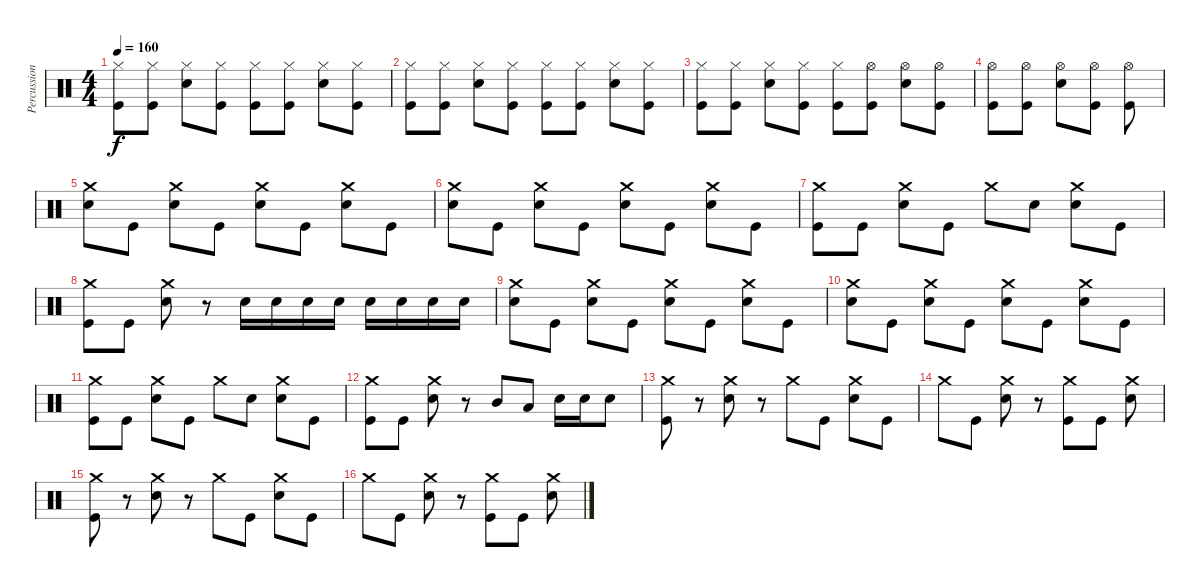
\track ("Percussion" "Percussion") {instrument percussion}
\staff {score}
\articulation defaults
\ts (4 4)
\tempo 160
\clef neutral
\ks c
("Hi-Hat (closed)" "Kick (hit)").8{dy f} ("Hi-Hat (closed)" "Kick (hit)").8 ("Hi-Hat (closed)" "Electric Snare (hit)").8 ("Hi-Hat (closed)" "Kick (hit)").8 ("Hi-Hat (closed)" "Kick (hit)").8 ("Hi-Hat (closed)" "Kick (hit)").8 ("Hi-Hat (closed)" "Electric Snare (hit)").8 ("Hi-Hat (closed)" "Kick (hit)").8 |
("Hi-Hat (closed)" "Kick (hit)").8 ("Hi-Hat (closed)" "Kick (hit)").8 ("Hi-Hat (closed)" "Electric Snare (hit)").8 ("Hi-Hat (closed)" "Kick (hit)").8 ("Hi-Hat (closed)" "Kick (hit)").8 ("Hi-Hat (closed)" "Kick (hit)").8 ("Hi-Hat (closed)" "Electric Snare (hit)").8 ("Hi-Hat (closed)" "Kick (hit)").8 |
("Hi-Hat (closed)" "Kick (hit)").8 ("Hi-Hat (closed)" "Kick (hit)").8 ("Hi-Hat (closed)" "Electric Snare (hit)").8 ("Hi-Hat (closed)" "Kick (hit)").8 ("Hi-Hat (closed)" "Kick (hit)").8 ("Hi-Hat (open)" "Kick (hit)").8 ("Hi-Hat (open)" "Electric Snare (hit)").8 ("Hi-Hat (open)" "Kick (hit)").8 |
("Hi-Hat (open)" "Kick (hit)").8 ("Hi-Hat (open)" "Kick (hit)").8 ("Hi-Hat (open)" "Electric Snare (hit)").8 ("Hi-Hat (open)" "Kick (hit)").8 ("Hi-Hat (open)" "Kick (hit)").8 |
("Crash medium (hit)" "Electric Snare (hit)").8 "Kick (hit)".8 ("Crash medium (hit)" "Electric Snare (hit)").8 "Kick (hit)".8 ("Crash medium (hit)" "Electric Snare (hit)").8 "Kick (hit)".8 ("Crash medium (hit)" "Electric Snare (hit)").8 "Kick (hit)".8 |
("Crash medium (hit)" "Electric Snare (hit)").8 "Kick (hit)".8 ("Crash medium (hit)" "Electric Snare (hit)").8 "Kick (hit)".8 ("Crash medium (hit)" "Electric Snare (hit)").8 "Kick (hit)".8 ("Crash medium (hit)" "Electric Snare (hit)").8 "Kick (hit)".8 |
("Crash medium (hit)" "Kick (hit)").8 "Kick (hit)".8 ("Crash medium (hit)" "Electric Snare (hit)").8 "Kick (hit)".8 "Crash medium (hit)".8 "Electric Snare (hit)".8 ("Crash medium (hit)" "Electric Snare (hit)").8 "Kick (hit)".8 |
("Crash medium (hit)" "Kick (hit)").8 "Kick (hit)".8 ("Crash medium (hit)" "Electric Snare (hit)").8 r.8 "Electric Snare (hit)".16 "Electric Snare (hit)".16 "Electric Snare (hit)".16 "Electric Snare (hit)".16 "Electric Snare (hit)".16 "Electric Snare (hit)".16 "Electric Snare (hit)".16 "Electric Snare (hit)".16 |
("Crash medium (hit)" "Electric Snare (hit)").8 "Kick (hit)".8 ("Crash medium (hit)" "Electric Snare (hit)").8 "Kick (hit)".8 ("Crash medium (hit)" "Electric Snare (hit)").8 "Kick (hit)".8 ("Crash medium (hit)" "Electric Snare (hit)").8 "Kick (hit)".8 |
("Crash medium (hit)" "Electric Snare (hit)").8 "Kick (hit)".8 ("Crash medium (hit)" "Electric Snare (hit)").8 "Kick (hit)".8 ("Crash medium (hit)" "Electric Snare (hit)").8 "Kick (hit)".8 ("Crash medium (hit)" "Electric Snare (hit)").8 "Kick (hit)".8 |
("Crash medium (hit)" "Kick (hit)").8 "Kick (hit)".8 ("Crash medium (hit)" "Electric Snare (hit)").8 "Kick (hit)".8 "Crash medium (hit)".8 "Electric Snare (hit)".8 ("Crash medium (hit)" "Electric Snare (hit)").8 "Kick (hit)".8 |
("Crash medium (hit)" "Kick (hit)").8 "Kick (hit)".8 ("Crash medium (hit)" "Electric Snare (hit)").8 r.8 "Mid Tom (hit)".8 "Low Tom (hit)".8 "Electric Snare (hit)".16 "Electric Snare (hit)".16 "Electric Snare (hit)".8 |
("Crash medium (hit)" "Kick (hit)").8 r.8 ("Crash medium (hit)" "Electric Snare (hit)").8 r.8 "Crash medium (hit)".8 "Kick (hit)".8 ("Crash medium (hit)" "Electric Snare (hit)").8 "Kick (hit)".8 |
"Crash medium (hit)".8 "Kick (hit)".8 ("Crash medium (hit)" "Electric Snare (hit)").8 r.8 ("Crash medium (hit)" "Kick (hit)").8 "Kick (hit)".8 ("Crash medium (hit)" "Electric Snare (hit)").8 |
("Crash medium (hit)" "Kick (hit)").8 r.8 ("Crash medium (hit)" "Electric Snare (hit)").8 r.8 "Crash medium (hit)".8 "Kick (hit)".8 ("Crash medium (hit)" "Electric Snare (hit)").8 "Kick (hit)".8 |
"Crash medium (hit)".8 "Kick (hit)".8 ("Crash medium (hit)" "Electric Snare (hit)").8 r.8 ("Crash medium (hit)" "Kick (hit)").8 "Kick (hit)".8 ("Crash medium (hit)" "Electric Snare (hit)").8
